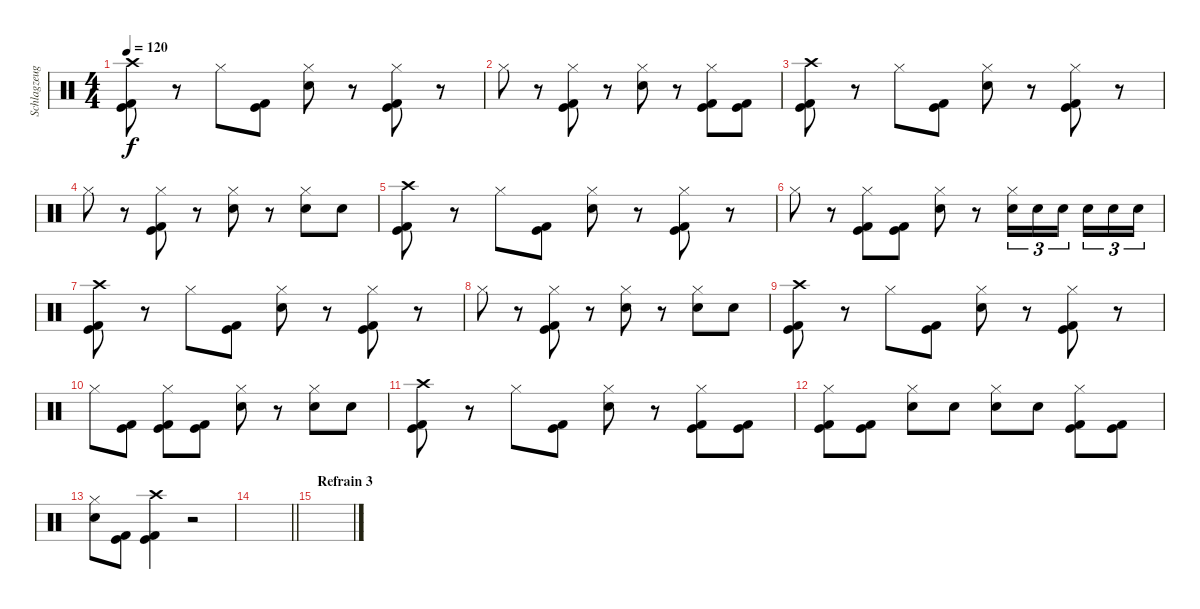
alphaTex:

\track ("Schlagzeug" "Schlagzeug") {instrument percussion}
\staff {score}
\articulation defaults
\ts (4 4)
\tempo 120
\clef neutral
\ks c
("Kick (hit)" "Kick (hit) 2" "Crash high (hit)").8{dy f} r.8 "Hi-Hat (closed)".8 ("Kick (hit)" "Kick (hit) 2").8 ("Hi-Hat (closed)" "Electric Snare (hit)").8 r.8 ("Hi-Hat (closed)" "Kick (hit)" "Kick (hit) 2").8 r.8 |
"Hi-Hat (closed)".8 r.8 ("Hi-Hat (closed)" "Kick (hit)" "Kick (hit) 2").8 r.8 ("Hi-Hat (closed)" "Electric Snare (hit)").8 r.8 ("Hi-Hat (closed)" "Kick (hit)" "Kick (hit) 2").8 ("Kick (hit)" "Kick (hit) 2").8 |
("Kick (hit)" "Kick (hit) 2" "Crash high (hit)").8 r.8 "Hi-Hat (closed)".8 ("Kick (hit)" "Kick (hit) 2").8 ("Hi-Hat (closed)" "Electric Snare (hit)").8 r.8 ("Hi-Hat (closed)" "Kick (hit)" "Kick (hit) 2").8 r.8 |
"Hi-Hat (closed)".8 r.8 ("Hi-Hat (closed)" "Kick (hit)" "Kick (hit) 2").8 r.8 ("Hi-Hat (closed)" "Electric Snare (hit)").8 r.8 ("Hi-Hat (closed)" "Electric Snare (hit)").8 "Electric Snare (hit)".8 |
("Kick (hit)" "Kick (hit) 2" "Crash high (hit)").8 r.8 "Hi-Hat (closed)".8 ("Kick (hit)" "Kick (hit) 2").8 ("Hi-Hat (closed)" "Electric Snare (hit)").8 r.8 ("Hi-Hat (closed)" "Kick (hit)" "Kick (hit) 2").8 r.8 |
"Hi-Hat (closed)".8 r.8 ("Hi-Hat (closed)" "Kick (hit)" "Kick (hit) 2").8 ("Kick (hit)" "Kick (hit) 2").8 ("Hi-Hat (closed)" "Electric Snare (hit)").8 r.8 ("Hi-Hat (closed)" "Electric Snare (hit)").16{tu (3 2)} "Electric Snare (hit)".16{tu (3 2)} "Electric Snare (hit)".16{tu (3 2) beam splitsecondary} "Electric Snare (hit)".16{tu (3 2)} "Electric Snare (hit)".16{tu (3 2)} "Electric Snare (hit)".16{tu (3 2)} |
("Kick (hit)" "Kick (hit) 2" "Crash high (hit)").8 r.8 "Hi-Hat (closed)".8 ("Kick (hit)" "Kick (hit) 2").8 ("Hi-Hat (closed)" "Electric Snare (hit)").8 r.8 ("Hi-Hat (closed)" "Kick (hit)" "Kick (hit) 2").8 r.8 |
"Hi-Hat (closed)".8 r.8 ("Hi-Hat (closed)" "Kick (hit)" "Kick (hit) 2").8 r.8 ("Hi-Hat (closed)" "Electric Snare (hit)").8 r.8 ("Hi-Hat (closed)" "Electric Snare (hit)").8 "Electric Snare (hit)".8 |
("Kick (hit)" "Kick (hit) 2" "Crash high (hit)").8 r.8 "Hi-Hat (closed)".8 ("Kick (hit)" "Kick (hit) 2").8 ("Hi-Hat (closed)" "Electric Snare (hit)").8 r.8 ("Hi-Hat (closed)" "Kick (hit)" "Kick (hit) 2").8 r.8 |
"Hi-Hat (closed)".8 ("Kick (hit)" "Kick (hit) 2").8 ("Hi-Hat (closed)" "Kick (hit)" "Kick (hit) 2").8 ("Kick (hit)" "Kick (hit) 2").8 ("Hi-Hat (closed)" "Electric Snare (hit)").8 r.8 ("Hi-Hat (closed)" "Electric Snare (hit)").8 "Electric Snare (hit)".8 |
("Kick (hit)" "Kick (hit) 2" "Crash high (hit)").8 r.8 "Hi-Hat (closed)".8 ("Kick (hit)" "Kick (hit) 2").8 ("Hi-Hat (closed)" "Electric Snare (hit)").8 r.8 ("Hi-Hat (closed)" "Kick (hit)" "Kick (hit) 2").8 ("Kick (hit)" "Kick (hit) 2").8 |
("Hi-Hat (closed)" "Kick (hit)" "Kick (hit) 2").8 ("Kick (hit)" "Kick (hit) 2").8 ("Hi-Hat (closed)" "Electric Snare (hit)").8 "Electric Snare (hit)".8 ("Hi-Hat (closed)" "Electric Snare (hit)").8 "Electric Snare (hit)".8 ("Hi-Hat (closed)" "Kick (hit)" "Kick (hit) 2").8 ("Kick (hit)" "Kick (hit) 2").8 |
("Hi-Hat (closed)" "Electric Snare (hit)").8 ("Kick (hit)" "Kick (hit) 2").8 ("Kick (hit)" "Kick (hit) 2" "Crash high (hit)").4 r.2 |
\barLineRight lightlight
|
\section ("" "Refrain 3")
